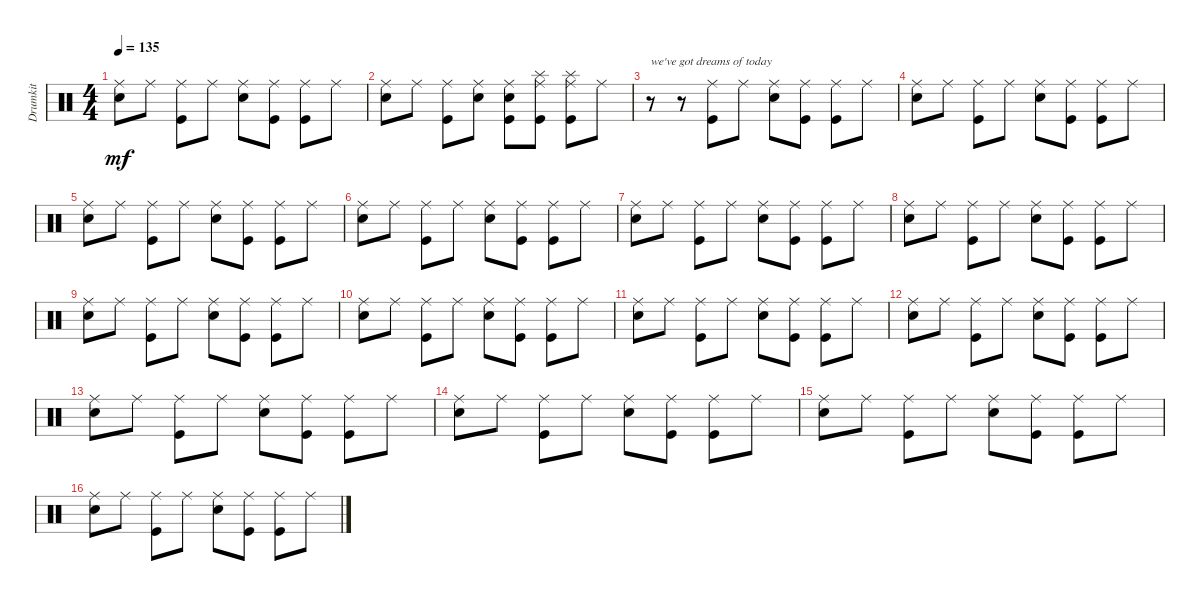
\track ("Drumkit" "Drumkit") {instrument percussion}
\staff {score}
\articulation defaults
\ts (4 4)
\tempo 135
\clef neutral
\ks c
("Snare (hit) 2" "Ride (middle)").8{dy mf} "Ride (middle)".8 ("Kick (hit)" "Ride (middle)").8 "Ride (middle)".8 ("Snare (hit) 2" "Ride (middle)").8 ("Kick (hit)" "Ride (middle)").8 ("Kick (hit)" "Ride (middle)").8 "Ride (middle)".8 |
("Snare (hit) 2" "Ride (middle)").8 "Ride (middle)".8 ("Kick (hit)" "Ride (middle)").8 ("Snare (hit) 2" "Ride (middle)").8 ("Snare (hit) 2" "Ride (middle)" "Kick (hit)").8 ("Ride (middle)" "Kick (hit)" "Splash (hit)").8 ("Ride (middle)" "Kick (hit)" "Splash (hit)").8 "Ride (middle)".8 |
r.8{txt "we've got dreams of today"} r.8 ("Kick (hit)" "Ride (middle)").8 "Ride (middle)".8 ("Snare (hit) 2" "Ride (middle)").8 ("Kick (hit)" "Ride (middle)").8 ("Kick (hit)" "Ride (middle)").8 "Ride (middle)".8 |
("Snare (hit) 2" "Ride (middle)").8 "Ride (middle)".8 ("Kick (hit)" "Ride (middle)").8 "Ride (middle)".8 ("Snare (hit) 2" "Ride (middle)").8 ("Kick (hit)" "Ride (middle)").8 ("Kick (hit)" "Ride (middle)").8 "Ride (middle)".8 |
("Snare (hit) 2" "Ride (middle)").8 "Ride (middle)".8 ("Kick (hit)" "Ride (middle)").8 "Ride (middle)".8 ("Snare (hit) 2" "Ride (middle)").8 ("Kick (hit)" "Ride (middle)").8 ("Kick (hit)" "Ride (middle)").8 "Ride (middle)".8 |
("Snare (hit) 2" "Ride (middle)").8 "Ride (middle)".8 ("Kick (hit)" "Ride (middle)").8 "Ride (middle)".8 ("Snare (hit) 2" "Ride (middle)").8 ("Kick (hit)" "Ride (middle)").8 ("Kick (hit)" "Ride (middle)").8 "Ride (middle)".8 |
("Snare (hit) 2" "Ride (middle)").8 "Ride (middle)".8 ("Kick (hit)" "Ride (middle)").8 "Ride (middle)".8 ("Snare (hit) 2" "Ride (middle)").8 ("Kick (hit)" "Ride (middle)").8 ("Kick (hit)" "Ride (middle)").8 "Ride (middle)".8 |
("Snare (hit) 2" "Ride (middle)").8 "Ride (middle)".8 ("Kick (hit)" "Ride (middle)").8 "Ride (middle)".8 ("Snare (hit) 2" "Ride (middle)").8 ("Kick (hit)" "Ride (middle)").8 ("Kick (hit)" "Ride (middle)").8 "Ride (middle)".8 |
("Snare (hit) 2" "Ride (middle)").8 "Ride (middle)".8 ("Kick (hit)" "Ride (middle)").8 "Ride (middle)".8 ("Snare (hit) 2" "Ride (middle)").8 ("Kick (hit)" "Ride (middle)").8 ("Kick (hit)" "Ride (middle)").8 "Ride (middle)".8 |
("Snare (hit) 2" "Ride (middle)").8 "Ride (middle)".8 ("Kick (hit)" "Ride (middle)").8 "Ride (middle)".8 ("Snare (hit) 2" "Ride (middle)").8 ("Kick (hit)" "Ride (middle)").8 ("Kick (hit)" "Ride (middle)").8 "Ride (middle)".8 |
("Snare (hit) 2" "Ride (middle)").8 "Ride (middle)".8 ("Kick (hit)" "Ride (middle)").8 "Ride (middle)".8 ("Snare (hit) 2" "Ride (middle)").8 ("Kick (hit)" "Ride (middle)").8 ("Kick (hit)" "Ride (middle)").8 "Ride (middle)".8 |
("Snare (hit) 2" "Ride (middle)").8 "Ride (middle)".8 ("Kick (hit)" "Ride (middle)").8 "Ride (middle)".8 ("Snare (hit) 2" "Ride (middle)").8 ("Kick (hit)" "Ride (middle)").8 ("Kick (hit)" "Ride (middle)").8 "Ride (middle)".8 |
("Snare (hit) 2" "Ride (middle)").8 "Ride (middle)".8 ("Kick (hit)" "Ride (middle)").8 "Ride (middle)".8 ("Snare (hit) 2" "Ride (middle)").8 ("Kick (hit)" "Ride (middle)").8 ("Kick (hit)" "Ride (middle)").8 "Ride (middle)".8 |
("Snare (hit) 2" "Ride (middle)").8 "Ride (middle)".8 ("Kick (hit)" "Ride (middle)").8 "Ride (middle)".8 ("Snare (hit) 2" "Ride (middle)").8 ("Kick (hit)" "Ride (middle)").8 ("Kick (hit)" "Ride (middle)").8 "Ride (middle)".8 |
("Snare (hit) 2" "Ride (middle)").8 "Ride (middle)".8 ("Kick (hit)" "Ride (middle)").8 "Ride (middle)".8 ("Snare (hit) 2" "Ride (middle)").8 ("Kick (hit)" "Ride (middle)").8 ("Kick (hit)" "Ride (middle)").8 "Ride (middle)".8 |
("Snare (hit) 2" "Ride (middle)").8 "Ride (middle)".8 ("Kick (hit)" "Ride (middle)").8 "Ride (middle)".8 ("Snare (hit) 2" "Ride (middle)").8 ("Kick (hit)" "Ride (middle)").8 ("Kick (hit)" "Ride (middle)").8 "Ride (middle)".8
